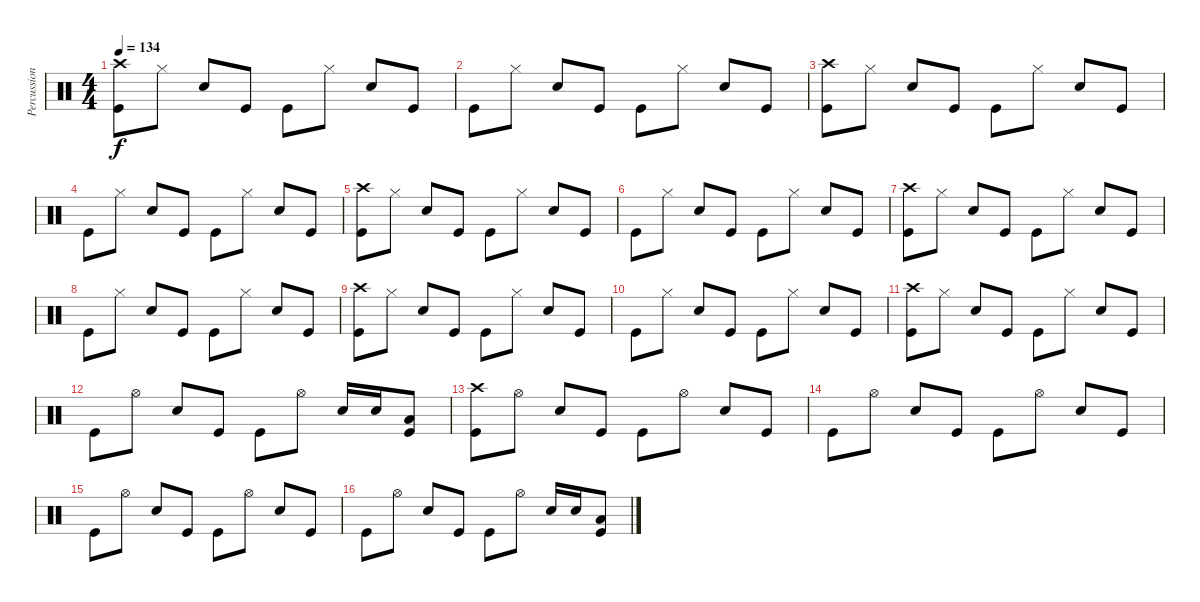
\track ("Percussion" "Percussion") {instrument percussion}
\staff {score}
\articulation defaults
\ts (4 4)
\tempo 134
\clef neutral
\ks c
("Crash high (hit)" "Kick (hit)").8{dy f} "Hi-Hat (closed)".8 "Electric Snare (hit)".8 "Kick (hit)".8 "Kick (hit)".8 "Hi-Hat (closed)".8 "Electric Snare (hit)".8 "Kick (hit)".8 |
"Kick (hit)".8 "Hi-Hat (closed)".8 "Electric Snare (hit)".8 "Kick (hit)".8 "Kick (hit)".8 "Hi-Hat (closed)".8 "Electric Snare (hit)".8 "Kick (hit)".8 |
("Crash high (hit)" "Kick (hit)").8 "Hi-Hat (closed)".8 "Electric Snare (hit)".8 "Kick (hit)".8 "Kick (hit)".8 "Hi-Hat (closed)".8 "Electric Snare (hit)".8 "Kick (hit)".8 |
"Kick (hit)".8 "Hi-Hat (closed)".8 "Electric Snare (hit)".8 "Kick (hit)".8 "Kick (hit)".8 "Hi-Hat (closed)".8 "Electric Snare (hit)".8 "Kick (hit)".8 |
("Crash high (hit)" "Kick (hit)").8 "Hi-Hat (closed)".8 "Electric Snare (hit)".8 "Kick (hit)".8 "Kick (hit)".8 "Hi-Hat (closed)".8 "Electric Snare (hit)".8 "Kick (hit)".8 |
"Kick (hit)".8 "Hi-Hat (closed)".8 "Electric Snare (hit)".8 "Kick (hit)".8 "Kick (hit)".8 "Hi-Hat (closed)".8 "Electric Snare (hit)".8 "Kick (hit)".8 |
("Crash high (hit)" "Kick (hit)").8 "Hi-Hat (closed)".8 "Electric Snare (hit)".8 "Kick (hit)".8 "Kick (hit)".8 "Hi-Hat (closed)".8 "Electric Snare (hit)".8 "Kick (hit)".8 |
"Kick (hit)".8 "Hi-Hat (closed)".8 "Electric Snare (hit)".8 "Kick (hit)".8 "Kick (hit)".8 "Hi-Hat (closed)".8 "Electric Snare (hit)".8 "Kick (hit)".8 |
("Crash high (hit)" "Kick (hit)").8 "Hi-Hat (closed)".8 "Electric Snare (hit)".8 "Kick (hit)".8 "Kick (hit)".8 "Hi-Hat (closed)".8 "Electric Snare (hit)".8 "Kick (hit)".8 |
"Kick (hit)".8 "Hi-Hat (closed)".8 "Electric Snare (hit)".8 "Kick (hit)".8 "Kick (hit)".8 "Hi-Hat (closed)".8 "Electric Snare (hit)".8 "Kick (hit)".8 |
("Crash high (hit)" "Kick (hit)").8 "Hi-Hat (closed)".8 "Electric Snare (hit)".8 "Kick (hit)".8 "Kick (hit)".8 "Hi-Hat (closed)".8 "Electric Snare (hit)".8 "Kick (hit)".8 |
"Kick (hit)".8 "Hi-Hat (open)".8 "Electric Snare (hit)".8 "Kick (hit)".8 "Kick (hit)".8 "Hi-Hat (open)".8 "Electric Snare (hit)".16 "Electric Snare (hit)".16 ("Low Tom (hit)" "Kick (hit)").8 |
("Crash high (hit)" "Kick (hit)").8 "Hi-Hat (open)".8 "Electric Snare (hit)".8 "Kick (hit)".8 "Kick (hit)".8 "Hi-Hat (open)".8 "Electric Snare (hit)".8 "Kick (hit)".8 |
"Kick (hit)".8 "Hi-Hat (open)".8 "Electric Snare (hit)".8 "Kick (hit)".8 "Kick (hit)".8 "Hi-Hat (open)".8 "Electric Snare (hit)".8 "Kick (hit)".8 |
"Kick (hit)".8 "Hi-Hat (open)".8 "Electric Snare (hit)".8 "Kick (hit)".8 "Kick (hit)".8 "Hi-Hat (open)".8 "Electric Snare (hit)".8 "Kick (hit)".8 |
"Kick (hit)".8 "Hi-Hat (open)".8 "Electric Snare (hit)".8 "Kick (hit)".8 "Kick (hit)".8 "Hi-Hat (open)".8 "Electric Snare (hit)".16 "Electric Snare (hit)".16 ("Low Tom (hit)" "Kick (hit)").8
